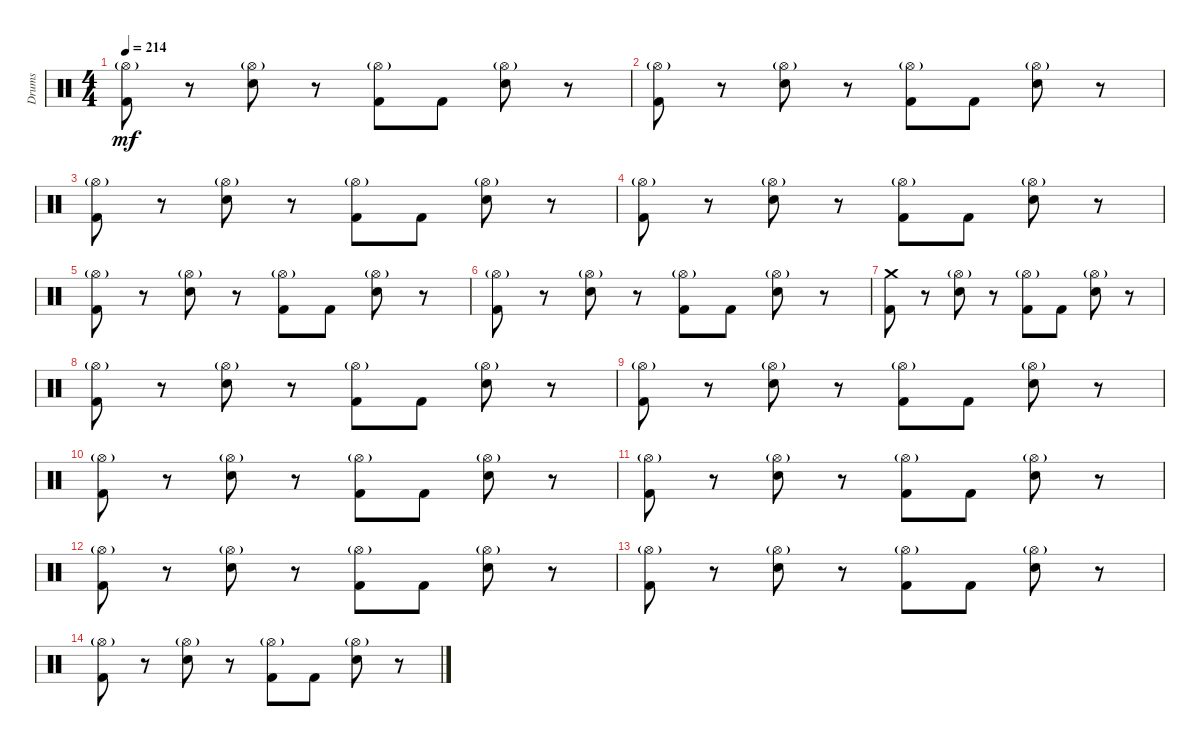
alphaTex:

\track ("Drums" "Drums") {instrument percussion}
\staff {score}
\articulation defaults
\ts (4 4)
\tempo 214
\clef neutral
\ks c
("Hi-Hat (open)"{g} "Kick (hit) 2").8{dy mf} r.8 ("Hi-Hat (open)"{g} "Snare (hit) 2").8 r.8 ("Hi-Hat (open)"{g} "Kick (hit) 2").8 "Kick (hit) 2".8 ("Hi-Hat (open)"{g} "Snare (hit) 2").8 r.8 |
("Hi-Hat (open)"{g} "Kick (hit) 2").8 r.8 ("Hi-Hat (open)"{g} "Snare (hit) 2").8 r.8 ("Hi-Hat (open)"{g} "Kick (hit) 2").8 "Kick (hit) 2".8 ("Hi-Hat (open)"{g} "Snare (hit) 2").8 r.8 |
("Hi-Hat (open)"{g} "Kick (hit) 2").8 r.8 ("Hi-Hat (open)"{g} "Snare (hit) 2").8 r.8 ("Hi-Hat (open)"{g} "Kick (hit) 2").8 "Kick (hit) 2".8 ("Hi-Hat (open)"{g} "Snare (hit) 2").8 r.8 |
("Hi-Hat (open)"{g} "Kick (hit) 2").8 r.8 ("Hi-Hat (open)"{g} "Snare (hit) 2").8 r.8 ("Hi-Hat (open)"{g} "Kick (hit) 2").8 "Kick (hit) 2".8 ("Hi-Hat (open)"{g} "Snare (hit) 2").8 r.8 |
("Hi-Hat (open)"{g} "Kick (hit) 2").8 r.8 ("Hi-Hat (open)"{g} "Snare (hit) 2").8 r.8 ("Hi-Hat (open)"{g} "Kick (hit) 2").8 "Kick (hit) 2".8 ("Hi-Hat (open)"{g} "Snare (hit) 2").8 r.8 |
("Hi-Hat (open)"{g} "Kick (hit) 2").8 r.8 ("Hi-Hat (open)"{g} "Snare (hit) 2").8 r.8 ("Hi-Hat (open)"{g} "Kick (hit) 2").8 "Kick (hit) 2".8 ("Hi-Hat (open)"{g} "Snare (hit) 2").8 r.8 |
("Crash medium (hit)" "Kick (hit) 2").8 r.8 ("Hi-Hat (open)"{g} "Snare (hit) 2").8 r.8 ("Hi-Hat (open)"{g} "Kick (hit) 2").8 "Kick (hit) 2".8 ("Hi-Hat (open)"{g} "Snare (hit) 2").8 r.8 |
("Hi-Hat (open)"{g} "Kick (hit) 2").8 r.8 ("Hi-Hat (open)"{g} "Snare (hit) 2").8 r.8 ("Hi-Hat (open)"{g} "Kick (hit) 2").8 "Kick (hit) 2".8 ("Hi-Hat (open)"{g} "Snare (hit) 2").8 r.8 |
("Hi-Hat (open)"{g} "Kick (hit) 2").8 r.8 ("Hi-Hat (open)"{g} "Snare (hit) 2").8 r.8 ("Hi-Hat (open)"{g} "Kick (hit) 2").8 "Kick (hit) 2".8 ("Hi-Hat (open)"{g} "Snare (hit) 2").8 r.8 |
("Hi-Hat (open)"{g} "Kick (hit) 2").8 r.8 ("Hi-Hat (open)"{g} "Snare (hit) 2").8 r.8 ("Hi-Hat (open)"{g} "Kick (hit) 2").8 "Kick (hit) 2".8 ("Hi-Hat (open)"{g} "Snare (hit) 2").8 r.8 |
("Hi-Hat (open)"{g} "Kick (hit) 2").8 r.8 ("Hi-Hat (open)"{g} "Snare (hit) 2").8 r.8 ("Hi-Hat (open)"{g} "Kick (hit) 2").8 "Kick (hit) 2".8 ("Hi-Hat (open)"{g} "Snare (hit) 2").8 r.8 |
("Hi-Hat (open)"{g} "Kick (hit) 2").8 r.8 ("Hi-Hat (open)"{g} "Snare (hit) 2").8 r.8 ("Hi-Hat (open)"{g} "Kick (hit) 2").8 "Kick (hit) 2".8 ("Hi-Hat (open)"{g} "Snare (hit) 2").8 r.8 |
("Hi-Hat (open)"{g} "Kick (hit) 2").8 r.8 ("Hi-Hat (open)"{g} "Snare (hit) 2").8 r.8 ("Hi-Hat (open)"{g} "Kick (hit) 2").8 "Kick (hit) 2".8 ("Hi-Hat (open)"{g} "Snare (hit) 2").8 r.8 |
("Hi-Hat (open)"{g} "Kick (hit) 2").8 r.8 ("Hi-Hat (open)"{g} "Snare (hit) 2").8 r.8 ("Hi-Hat (open)"{g} "Kick (hit) 2").8 "Kick (hit) 2".8 ("Hi-Hat (open)"{g} "Snare (hit) 2").8 r.8
